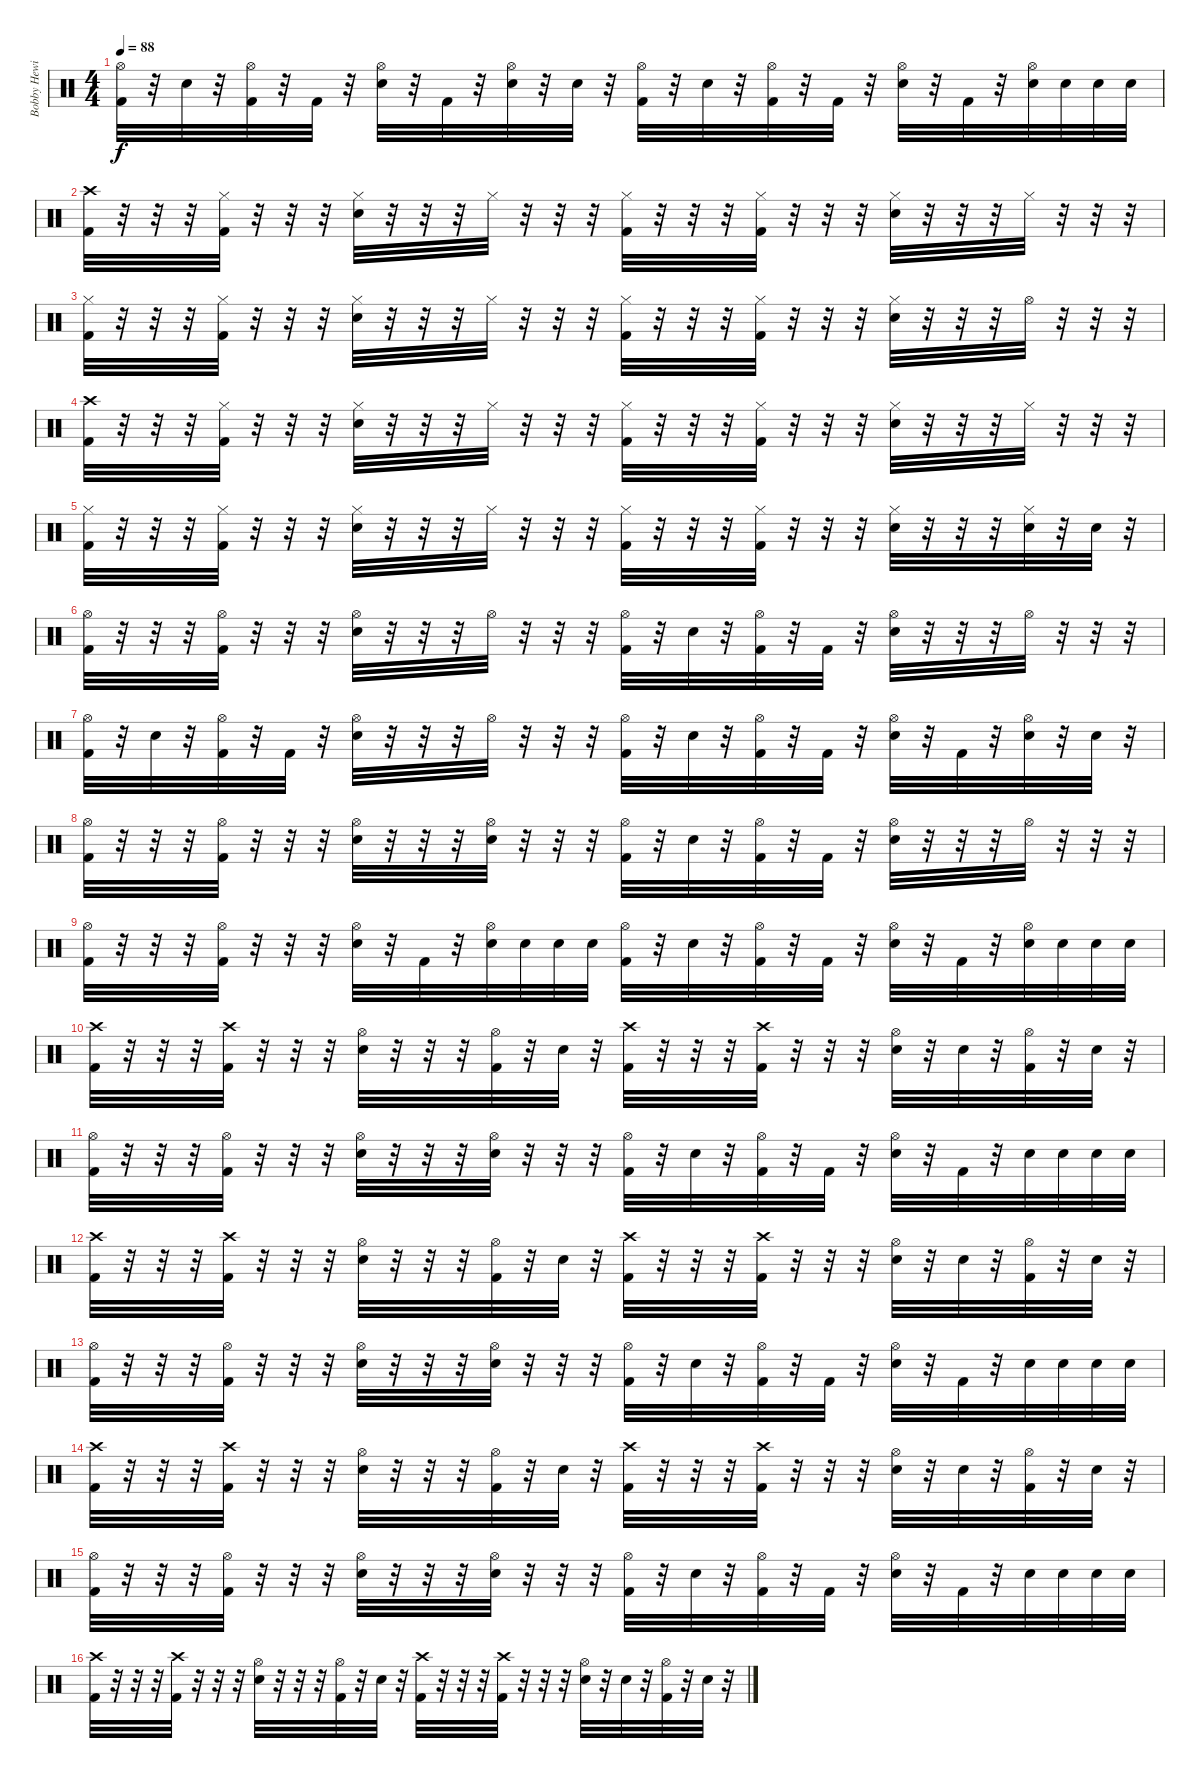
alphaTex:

\track ("Bobby Hewit - Drums" "Bobby Hewi") {instrument percussion}
\staff {score}
\articulation defaults
\ts (4 4)
\tempo 88
\clef neutral
\ks c
("Hi-Hat (open)" "Kick (hit) 2").32{dy f} r.32 "Electric Snare (hit)".32 r.32 ("Hi-Hat (open)" "Kick (hit) 2").32 r.32 "Kick (hit) 2".32 r.32 ("Hi-Hat (open)" "Electric Snare (hit)").32 r.32 "Kick (hit) 2".32 r.32 ("Hi-Hat (open)" "Electric Snare (hit)").32 r.32 "Electric Snare (hit)".32 r.32 ("Hi-Hat (open)" "Kick (hit) 2").32 r.32 "Electric Snare (hit)".32 r.32 ("Hi-Hat (open)" "Kick (hit) 2").32 r.32 "Kick (hit) 2".32 r.32 ("Hi-Hat (open)" "Electric Snare (hit)").32 r.32 "Kick (hit) 2".32 r.32 ("Hi-Hat (open)" "Electric Snare (hit)").32 "Electric Snare (hit)".32 "Electric Snare (hit)".32 "Electric Snare (hit)".32 |
("Crash high (hit)" "Kick (hit) 2").32 r.32 r.32 r.32 ("Hi-Hat (closed)" "Kick (hit) 2").32 r.32 r.32 r.32 ("Hi-Hat (closed)" "Electric Snare (hit)").32 r.32 r.32 r.32 "Hi-Hat (closed)".32 r.32 r.32 r.32 ("Hi-Hat (closed)" "Kick (hit) 2").32 r.32 r.32 r.32 ("Hi-Hat (closed)" "Kick (hit) 2").32 r.32 r.32 r.32 ("Hi-Hat (closed)" "Electric Snare (hit)").32 r.32 r.32 r.32 "Hi-Hat (closed)".32 r.32 r.32 r.32 |
("Hi-Hat (closed)" "Kick (hit) 2").32 r.32 r.32 r.32 ("Hi-Hat (closed)" "Kick (hit) 2").32 r.32 r.32 r.32 ("Hi-Hat (closed)" "Electric Snare (hit)").32 r.32 r.32 r.32 "Hi-Hat (closed)".32 r.32 r.32 r.32 ("Hi-Hat (closed)" "Kick (hit) 2").32 r.32 r.32 r.32 ("Hi-Hat (closed)" "Kick (hit) 2").32 r.32 r.32 r.32 ("Hi-Hat (closed)" "Electric Snare (hit)").32 r.32 r.32 r.32 "Hi-Hat (open)".32 r.32 r.32 r.32 |
("Crash high (hit)" "Kick (hit) 2").32 r.32 r.32 r.32 ("Hi-Hat (closed)" "Kick (hit) 2").32 r.32 r.32 r.32 ("Hi-Hat (closed)" "Electric Snare (hit)").32 r.32 r.32 r.32 "Hi-Hat (closed)".32 r.32 r.32 r.32 ("Hi-Hat (closed)" "Kick (hit) 2").32 r.32 r.32 r.32 ("Hi-Hat (closed)" "Kick (hit) 2").32 r.32 r.32 r.32 ("Hi-Hat (closed)" "Electric Snare (hit)").32 r.32 r.32 r.32 "Hi-Hat (closed)".32 r.32 r.32 r.32 |
("Hi-Hat (closed)" "Kick (hit) 2").32 r.32 r.32 r.32 ("Hi-Hat (closed)" "Kick (hit) 2").32 r.32 r.32 r.32 ("Hi-Hat (closed)" "Electric Snare (hit)").32 r.32 r.32 r.32 "Hi-Hat (closed)".32 r.32 r.32 r.32 ("Hi-Hat (closed)" "Kick (hit) 2").32 r.32 r.32 r.32 ("Hi-Hat (closed)" "Kick (hit) 2").32 r.32 r.32 r.32 ("Hi-Hat (closed)" "Electric Snare (hit)").32 r.32 r.32 r.32 ("Hi-Hat (closed)" "Electric Snare (hit)").32 r.32 "Electric Snare (hit)".32 r.32 |
("Hi-Hat (open)" "Kick (hit) 2").32 r.32 r.32 r.32 ("Hi-Hat (open)" "Kick (hit) 2").32 r.32 r.32 r.32 ("Hi-Hat (open)" "Electric Snare (hit)").32 r.32 r.32 r.32 "Hi-Hat (open)".32 r.32 r.32 r.32 ("Hi-Hat (open)" "Kick (hit) 2").32 r.32 "Electric Snare (hit)".32 r.32 ("Hi-Hat (open)" "Kick (hit) 2").32 r.32 "Kick (hit) 2".32 r.32 ("Hi-Hat (open)" "Electric Snare (hit)").32 r.32 r.32 r.32 "Hi-Hat (open)".32 r.32 r.32 r.32 |
("Hi-Hat (open)" "Kick (hit) 2").32 r.32 "Electric Snare (hit)".32 r.32 ("Hi-Hat (open)" "Kick (hit) 2").32 r.32 "Kick (hit) 2".32 r.32 ("Hi-Hat (open)" "Electric Snare (hit)").32 r.32 r.32 r.32 "Hi-Hat (open)".32 r.32 r.32 r.32 ("Hi-Hat (open)" "Kick (hit) 2").32 r.32 "Electric Snare (hit)".32 r.32 ("Hi-Hat (open)" "Kick (hit) 2").32 r.32 "Kick (hit) 2".32 r.32 ("Hi-Hat (open)" "Electric Snare (hit)").32 r.32 "Kick (hit) 2".32 r.32 ("Hi-Hat (open)" "Electric Snare (hit)").32 r.32 "Electric Snare (hit)".32 r.32 |
("Hi-Hat (open)" "Kick (hit) 2").32 r.32 r.32 r.32 ("Hi-Hat (open)" "Kick (hit) 2").32 r.32 r.32 r.32 ("Hi-Hat (open)" "Electric Snare (hit)").32 r.32 r.32 r.32 ("Hi-Hat (open)" "Electric Snare (hit)").32 r.32 r.32 r.32 ("Hi-Hat (open)" "Kick (hit) 2").32 r.32 "Electric Snare (hit)".32 r.32 ("Hi-Hat (open)" "Kick (hit) 2").32 r.32 "Kick (hit) 2".32 r.32 ("Hi-Hat (open)" "Electric Snare (hit)").32 r.32 r.32 r.32 "Hi-Hat (open)".32 r.32 r.32 r.32 |
("Hi-Hat (open)" "Kick (hit) 2").32 r.32 r.32 r.32 ("Hi-Hat (open)" "Kick (hit) 2").32 r.32 r.32 r.32 ("Hi-Hat (open)" "Electric Snare (hit)").32 r.32 "Kick (hit) 2".32 r.32 ("Hi-Hat (open)" "Electric Snare (hit)").32 "Electric Snare (hit)".32 "Electric Snare (hit)".32 "Electric Snare (hit)".32 ("Hi-Hat (open)" "Kick (hit) 2").32 r.32 "Electric Snare (hit)".32 r.32 ("Hi-Hat (open)" "Kick (hit) 2").32 r.32 "Kick (hit) 2".32 r.32 ("Hi-Hat (open)" "Electric Snare (hit)").32 r.32 "Kick (hit) 2".32 r.32 ("Hi-Hat (open)" "Electric Snare (hit)").32 "Electric Snare (hit)".32 "Electric Snare (hit)".32 "Electric Snare (hit)".32 |
("Crash high (hit)" "Kick (hit) 2").32 r.32 r.32 r.32 ("Crash high (hit)" "Kick (hit) 2").32 r.32 r.32 r.32 ("Hi-Hat (open)" "Electric Snare (hit)").32 r.32 r.32 r.32 ("Hi-Hat (open)" "Kick (hit) 2").32 r.32 "Electric Snare (hit)".32 r.32 ("Crash high (hit)" "Kick (hit) 2").32 r.32 r.32 r.32 ("Crash high (hit)" "Kick (hit) 2").32 r.32 r.32 r.32 ("Hi-Hat (open)" "Electric Snare (hit)").32 r.32 "Electric Snare (hit)".32 r.32 ("Hi-Hat (open)" "Kick (hit) 2").32 r.32 "Electric Snare (hit)".32 r.32 |
("Hi-Hat (open)" "Kick (hit) 2").32 r.32 r.32 r.32 ("Hi-Hat (open)" "Kick (hit) 2").32 r.32 r.32 r.32 ("Hi-Hat (open)" "Electric Snare (hit)").32 r.32 r.32 r.32 ("Hi-Hat (open)" "Electric Snare (hit)").32 r.32 r.32 r.32 ("Hi-Hat (open)" "Kick (hit) 2").32 r.32 "Electric Snare (hit)".32 r.32 ("Hi-Hat (open)" "Kick (hit) 2").32 r.32 "Kick (hit) 2".32 r.32 ("Hi-Hat (open)" "Electric Snare (hit)").32 r.32 "Kick (hit) 2".32 r.32 "Electric Snare (hit)".32 "Electric Snare (hit)".32 "Electric Snare (hit)".32 "Electric Snare (hit)".32 |
("Crash high (hit)" "Kick (hit) 2").32 r.32 r.32 r.32 ("Crash high (hit)" "Kick (hit) 2").32 r.32 r.32 r.32 ("Hi-Hat (open)" "Electric Snare (hit)").32 r.32 r.32 r.32 ("Hi-Hat (open)" "Kick (hit) 2").32 r.32 "Electric Snare (hit)".32 r.32 ("Crash high (hit)" "Kick (hit) 2").32 r.32 r.32 r.32 ("Crash high (hit)" "Kick (hit) 2").32 r.32 r.32 r.32 ("Hi-Hat (open)" "Electric Snare (hit)").32 r.32 "Electric Snare (hit)".32 r.32 ("Hi-Hat (open)" "Kick (hit) 2").32 r.32 "Electric Snare (hit)".32 r.32 |
("Hi-Hat (open)" "Kick (hit) 2").32 r.32 r.32 r.32 ("Hi-Hat (open)" "Kick (hit) 2").32 r.32 r.32 r.32 ("Hi-Hat (open)" "Electric Snare (hit)").32 r.32 r.32 r.32 ("Hi-Hat (open)" "Electric Snare (hit)").32 r.32 r.32 r.32 ("Hi-Hat (open)" "Kick (hit) 2").32 r.32 "Electric Snare (hit)".32 r.32 ("Hi-Hat (open)" "Kick (hit) 2").32 r.32 "Kick (hit) 2".32 r.32 ("Hi-Hat (open)" "Electric Snare (hit)").32 r.32 "Kick (hit) 2".32 r.32 "Electric Snare (hit)".32 "Electric Snare (hit)".32 "Electric Snare (hit)".32 "Electric Snare (hit)".32 |
("Crash high (hit)" "Kick (hit) 2").32 r.32 r.32 r.32 ("Crash high (hit)" "Kick (hit) 2").32 r.32 r.32 r.32 ("Hi-Hat (open)" "Electric Snare (hit)").32 r.32 r.32 r.32 ("Hi-Hat (open)" "Kick (hit) 2").32 r.32 "Electric Snare (hit)".32 r.32 ("Crash high (hit)" "Kick (hit) 2").32 r.32 r.32 r.32 ("Crash high (hit)" "Kick (hit) 2").32 r.32 r.32 r.32 ("Hi-Hat (open)" "Electric Snare (hit)").32 r.32 "Electric Snare (hit)".32 r.32 ("Hi-Hat (open)" "Kick (hit) 2").32 r.32 "Electric Snare (hit)".32 r.32 |
("Hi-Hat (open)" "Kick (hit) 2").32 r.32 r.32 r.32 ("Hi-Hat (open)" "Kick (hit) 2").32 r.32 r.32 r.32 ("Hi-Hat (open)" "Electric Snare (hit)").32 r.32 r.32 r.32 ("Hi-Hat (open)" "Electric Snare (hit)").32 r.32 r.32 r.32 ("Hi-Hat (open)" "Kick (hit) 2").32 r.32 "Electric Snare (hit)".32 r.32 ("Hi-Hat (open)" "Kick (hit) 2").32 r.32 "Kick (hit) 2".32 r.32 ("Hi-Hat (open)" "Electric Snare (hit)").32 r.32 "Kick (hit) 2".32 r.32 "Electric Snare (hit)".32 "Electric Snare (hit)".32 "Electric Snare (hit)".32 "Electric Snare (hit)".32 |
("Crash high (hit)" "Kick (hit) 2").32 r.32 r.32 r.32 ("Crash high (hit)" "Kick (hit) 2").32 r.32 r.32 r.32 ("Hi-Hat (open)" "Electric Snare (hit)").32 r.32 r.32 r.32 ("Hi-Hat (open)" "Kick (hit) 2").32 r.32 "Electric Snare (hit)".32 r.32 ("Crash high (hit)" "Kick (hit) 2").32 r.32 r.32 r.32 ("Crash high (hit)" "Kick (hit) 2").32 r.32 r.32 r.32 ("Hi-Hat (open)" "Electric Snare (hit)").32 r.32 "Electric Snare (hit)".32 r.32 ("Hi-Hat (open)" "Kick (hit) 2").32 r.32 "Electric Snare (hit)".32 r.32
